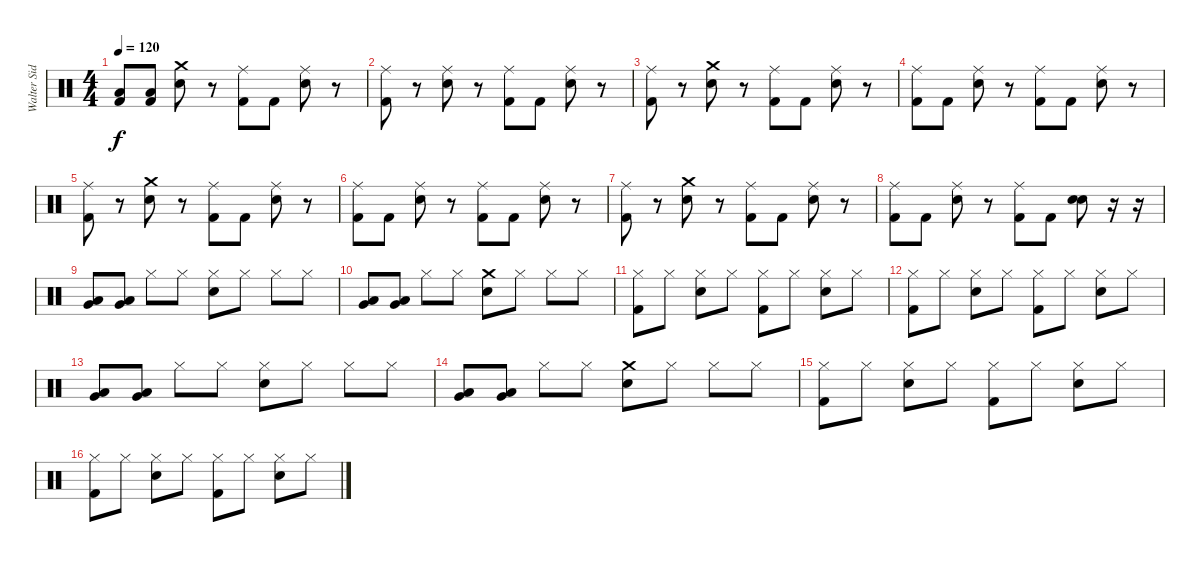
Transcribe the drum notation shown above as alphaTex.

\track ("Walter Sidotti" "Walter Sid") {instrument percussion}
\staff {score}
\articulation defaults
\ts (4 4)
\tempo 120
\clef neutral
\ks c
("Kick (hit) 2" "Low Tom (hit)").8{dy f} ("Kick (hit) 2" "Low Tom (hit)").8 ("Electric Snare (hit)" "Crash medium (hit)").8 r.8 ("Kick (hit) 2" "Ride (middle)").8 "Kick (hit) 2".8 ("Electric Snare (hit)" "Ride (middle)").8 r.8 |
("Kick (hit) 2" "Ride (middle)").8 r.8 ("Electric Snare (hit)" "Ride (middle)").8 r.8 ("Kick (hit) 2" "Ride (middle)").8 "Kick (hit) 2".8 ("Electric Snare (hit)" "Ride (middle)").8 r.8 |
("Kick (hit) 2" "Ride (middle)").8 r.8 ("Electric Snare (hit)" "Crash medium (hit)").8 r.8 ("Kick (hit) 2" "Ride (middle)").8 "Kick (hit) 2".8 ("Electric Snare (hit)" "Ride (middle)").8 r.8 |
("Kick (hit) 2" "Ride (middle)").8 "Kick (hit) 2".8 ("Electric Snare (hit)" "Ride (middle)").8 r.8 ("Kick (hit) 2" "Ride (middle)").8 "Kick (hit) 2".8 ("Electric Snare (hit)" "Ride (middle)").8 r.8 |
("Kick (hit) 2" "Ride (middle)").8 r.8 ("Electric Snare (hit)" "Crash medium (hit)").8 r.8 ("Kick (hit) 2" "Ride (middle)").8 "Kick (hit) 2".8 ("Electric Snare (hit)" "Ride (middle)").8 r.8 |
("Kick (hit) 2" "Ride (middle)").8 "Kick (hit) 2".8 ("Electric Snare (hit)" "Ride (middle)").8 r.8 ("Kick (hit) 2" "Ride (middle)").8 "Kick (hit) 2".8 ("Electric Snare (hit)" "Ride (middle)").8 r.8 |
("Kick (hit) 2" "Ride (middle)").8 r.8 ("Electric Snare (hit)" "Crash medium (hit)").8 r.8 ("Kick (hit) 2" "Ride (middle)").8 "Kick (hit) 2".8 ("Electric Snare (hit)" "Ride (middle)").8 r.8 |
("Kick (hit) 2" "Ride (middle)").8 "Kick (hit) 2".8 ("Electric Snare (hit)" "Ride (middle)").8 r.8 ("Kick (hit) 2" "Ride (middle)").8 "Kick (hit) 2".8 ("Electric Snare (hit)" "Electric Snare (hit)").8 r.16 r.16 |
("Very Low Tom (hit)" "Low Tom (hit)").8 ("Very Low Tom (hit)" "Low Tom (hit)").8 "Hi-Hat (closed)".8 "Hi-Hat (closed)".8 ("Hi-Hat (closed)" "Electric Snare (hit)").8 "Hi-Hat (closed)".8 "Hi-Hat (closed)".8 "Hi-Hat (closed)".8 |
("Very Low Tom (hit)" "Low Tom (hit)").8 ("Very Low Tom (hit)" "Low Tom (hit)").8 "Hi-Hat (closed)".8 "Hi-Hat (closed)".8 ("Crash medium (hit)" "Electric Snare (hit)").8 "Hi-Hat (closed)".8 "Hi-Hat (closed)".8 "Hi-Hat (closed)".8 |
("Kick (hit) 2" "Hi-Hat (closed)").8 "Hi-Hat (closed)".8 ("Electric Snare (hit)" "Hi-Hat (closed)").8 "Hi-Hat (closed)".8 ("Kick (hit) 2" "Hi-Hat (closed)").8 "Hi-Hat (closed)".8 ("Electric Snare (hit)" "Hi-Hat (closed)").8 "Hi-Hat (closed)".8 |
("Kick (hit) 2" "Hi-Hat (closed)").8 "Hi-Hat (closed)".8 ("Electric Snare (hit)" "Hi-Hat (closed)").8 "Hi-Hat (closed)".8 ("Kick (hit) 2" "Hi-Hat (closed)").8 "Hi-Hat (closed)".8 ("Electric Snare (hit)" "Hi-Hat (closed)").8 "Hi-Hat (closed)".8 |
("Very Low Tom (hit)" "Low Tom (hit)").8 ("Very Low Tom (hit)" "Low Tom (hit)").8 "Hi-Hat (closed)".8 "Hi-Hat (closed)".8 ("Hi-Hat (closed)" "Electric Snare (hit)").8 "Hi-Hat (closed)".8 "Hi-Hat (closed)".8 "Hi-Hat (closed)".8 |
("Very Low Tom (hit)" "Low Tom (hit)").8 ("Very Low Tom (hit)" "Low Tom (hit)").8 "Hi-Hat (closed)".8 "Hi-Hat (closed)".8 ("Crash medium (hit)" "Electric Snare (hit)").8 "Hi-Hat (closed)".8 "Hi-Hat (closed)".8 "Hi-Hat (closed)".8 |
("Kick (hit) 2" "Hi-Hat (closed)").8 "Hi-Hat (closed)".8 ("Electric Snare (hit)" "Hi-Hat (closed)").8 "Hi-Hat (closed)".8 ("Kick (hit) 2" "Hi-Hat (closed)").8 "Hi-Hat (closed)".8 ("Electric Snare (hit)" "Hi-Hat (closed)").8 "Hi-Hat (closed)".8 |
("Kick (hit) 2" "Hi-Hat (closed)").8 "Hi-Hat (closed)".8 ("Electric Snare (hit)" "Hi-Hat (closed)").8 "Hi-Hat (closed)".8 ("Kick (hit) 2" "Hi-Hat (closed)").8 "Hi-Hat (closed)".8 ("Electric Snare (hit)" "Hi-Hat (closed)").8 "Hi-Hat (closed)".8
